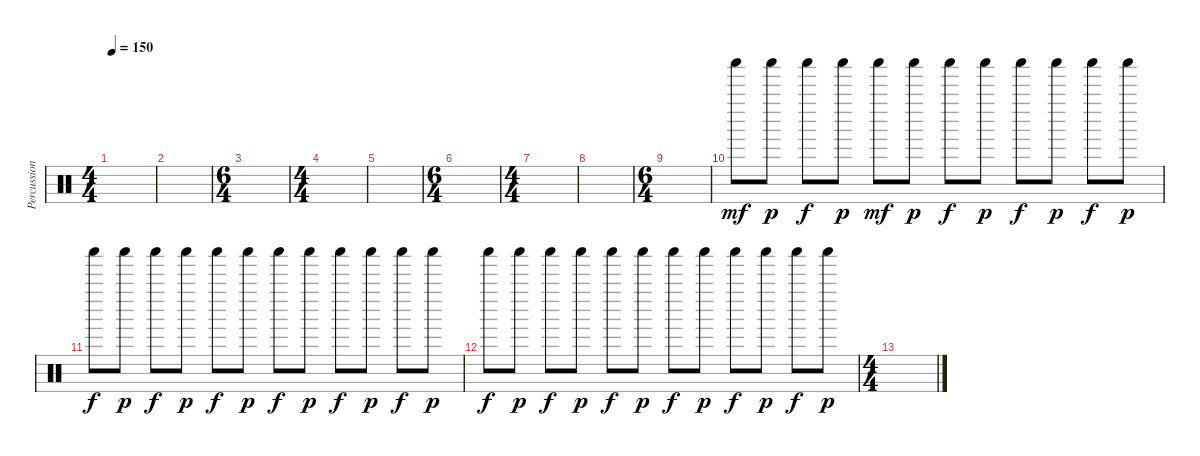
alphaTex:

\track ("Percussion" "Percussion") {instrument percussion}
\staff {score}
\articulation defaults
\ts (4 4)
\tempo 150
\clef neutral
\ks c
|
|
\ts (6 4)
|
\ts (4 4)
|
|
\ts (6 4)
|
\ts (4 4)
|
|
\ts (6 4)
|
"Shaker (hit)".8{dy mf} "Shaker (hit)".8{dy p} "Shaker (hit)".8{dy f} "Shaker (hit)".8{dy p} "Shaker (hit)".8{dy mf} "Shaker (hit)".8{dy p} "Shaker (hit)".8{dy f} "Shaker (hit)".8{dy p} "Shaker (hit)".8{dy f} "Shaker (hit)".8{dy p} "Shaker (hit)".8{dy f} "Shaker (hit)".8{dy p} |
"Shaker (hit)".8{dy f} "Shaker (hit)".8{dy p} "Shaker (hit)".8{dy f} "Shaker (hit)".8{dy p} "Shaker (hit)".8{dy f} "Shaker (hit)".8{dy p} "Shaker (hit)".8{dy f} "Shaker (hit)".8{dy p} "Shaker (hit)".8{dy f} "Shaker (hit)".8{dy p} "Shaker (hit)".8{dy f} "Shaker (hit)".8{dy p} |
"Shaker (hit)".8{dy f} "Shaker (hit)".8{dy p} "Shaker (hit)".8{dy f} "Shaker (hit)".8{dy p} "Shaker (hit)".8{dy f} "Shaker (hit)".8{dy p} "Shaker (hit)".8{dy f} "Shaker (hit)".8{dy p} "Shaker (hit)".8{dy f} "Shaker (hit)".8{dy p} "Shaker (hit)".8{dy f} "Shaker (hit)".8{dy p} |
\ts (4 4)
